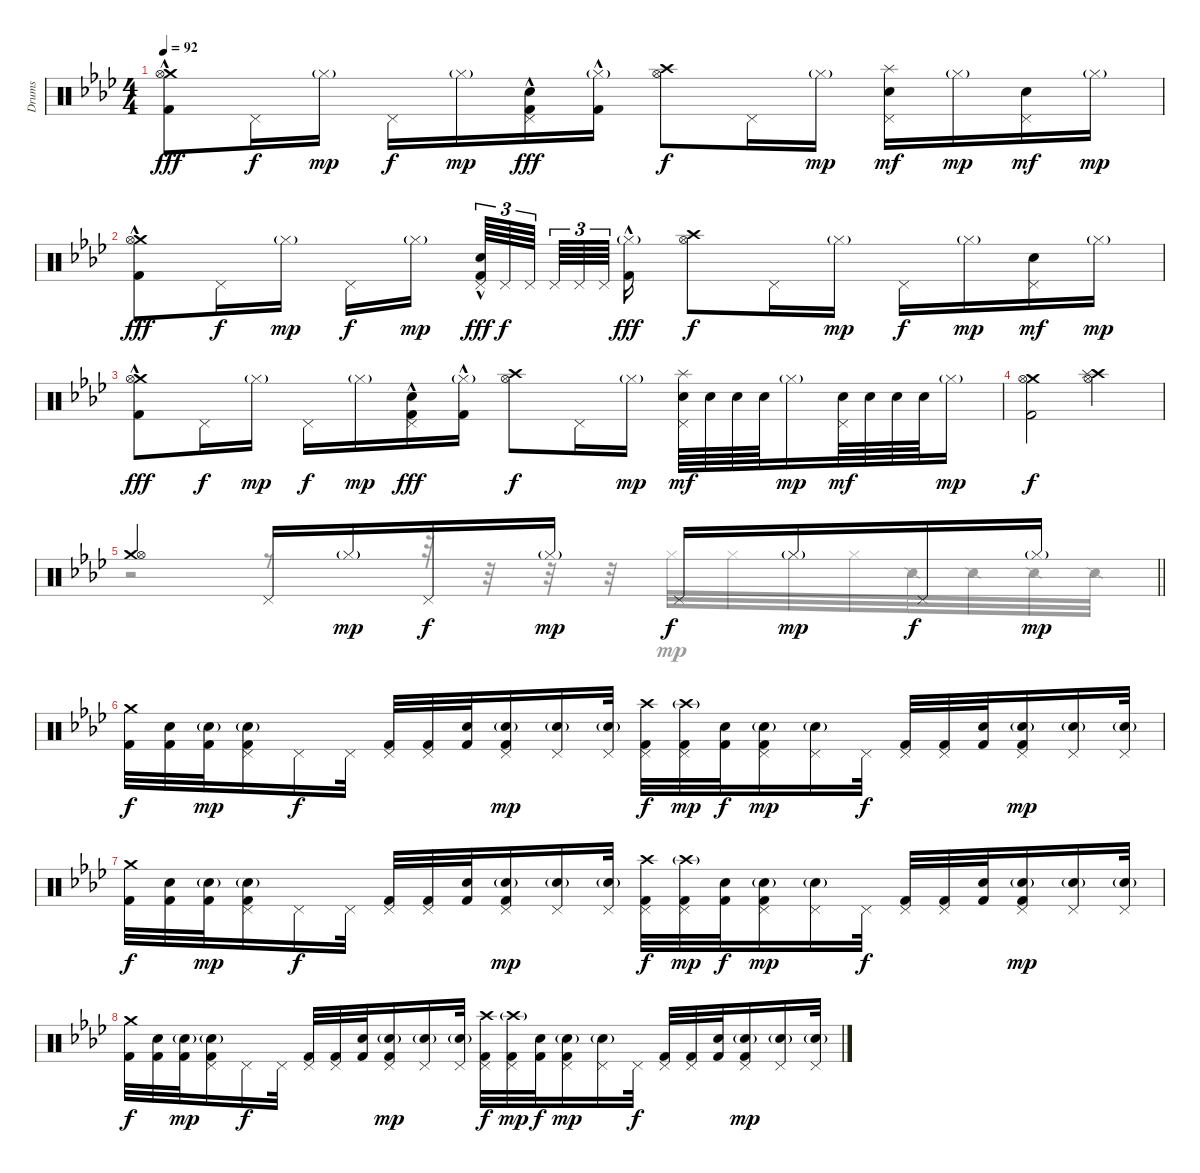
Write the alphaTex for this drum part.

\track ("Drums" "Drums") {instrument percussion}
\staff {score}
\articulation defaults
\voice
\ts (4 4)
\tempo 92
\clef neutral
\ks fminor
("Crash medium (hit)" "Hi-Hat (open)" "Kick (hit) 2"{hac}).8{dy fff} "Pedal Hi-Hat (hit)".16{dy f} "Hi-Hat (closed)"{g}.16{dy mp} "Pedal Hi-Hat (hit)".16{dy f} "Hi-Hat (closed)"{g}.16{dy mp} ("Pedal Hi-Hat (hit)" "Hand Clap (hit)" "Kick (hit) 2"{hac}).16{dy fff} ("Hi-Hat (closed)"{g} "Kick (hit) 2"{hac}).16 ("Crash high (hit)" "Hi-Hat (open)").8{dy f} "Pedal Hi-Hat (hit)".16 "Hi-Hat (closed)"{g}.16{dy mp} ("Splash (hit)" "Pedal Hi-Hat (hit)" "Hand Clap (hit)").16{dy mf} "Hi-Hat (closed)"{g}.16{dy mp} ("Pedal Hi-Hat (hit)" "Hand Clap (hit)").16{dy mf} "Hi-Hat (closed)"{g}.16{dy mp} |
("Crash medium (hit)" "Hi-Hat (open)" "Kick (hit) 2"{hac}).8{dy fff} "Pedal Hi-Hat (hit)".16{dy f} "Hi-Hat (closed)"{g}.16{dy mp} "Pedal Hi-Hat (hit)".16{dy f} "Hi-Hat (closed)"{g}.16{dy mp beam splitsecondary} ("Pedal Hi-Hat (hit)" "Hand Clap (hit)" "Kick (hit) 2"{hac}).64{tu (3 2) dy fff} "Pedal Hi-Hat (hit)".64{tu (3 2) dy f} "Pedal Hi-Hat (hit)".64{tu (3 2) beam splitsecondary} "Pedal Hi-Hat (hit)".64{tu (3 2)} "Pedal Hi-Hat (hit)".64{tu (3 2)} "Pedal Hi-Hat (hit)".64{tu (3 2) beam splitsecondary} ("Hi-Hat (closed)"{g} "Kick (hit) 2"{hac}).16{dy fff} ("Crash high (hit)" "Hi-Hat (open)").8{dy f} "Pedal Hi-Hat (hit)".16 "Hi-Hat (closed)"{g}.16{dy mp} "Pedal Hi-Hat (hit)".16{dy f} "Hi-Hat (closed)"{g}.16{dy mp} ("Pedal Hi-Hat (hit)" "Hand Clap (hit)").16{dy mf} "Hi-Hat (closed)"{g}.16{dy mp} |
("Crash medium (hit)" "Hi-Hat (open)" "Kick (hit) 2"{hac}).8{dy fff} "Pedal Hi-Hat (hit)".16{dy f} "Hi-Hat (closed)"{g}.16{dy mp} "Pedal Hi-Hat (hit)".16{dy f} "Hi-Hat (closed)"{g}.16{dy mp} ("Pedal Hi-Hat (hit)" "Hand Clap (hit)" "Kick (hit) 2"{hac}).16{dy fff} ("Hi-Hat (closed)"{g} "Kick (hit) 2"{hac}).16 ("Crash high (hit)" "Hi-Hat (open)").8{dy f} "Pedal Hi-Hat (hit)".16 "Hi-Hat (closed)"{g}.16{dy mp} ("Splash (hit)" "Pedal Hi-Hat (hit)" "Hand Clap (hit)").64{dy mf} "Hand Clap (hit)".64 "Hand Clap (hit)".64 "Hand Clap (hit)".64 "Hi-Hat (closed)"{g}.16{dy mp} ("Pedal Hi-Hat (hit)" "Hand Clap (hit)").64{dy mf} "Hand Clap (hit)".64 "Hand Clap (hit)".64 "Hand Clap (hit)".64 "Hi-Hat (closed)"{g}.16{dy mp} |
("Crash medium (hit)" "Hi-Hat (open)" "Kick (hit) 2").2{dy f} ("Crash high (hit)" "Hi-Hat (open)" "Splash (hit)").2 |
\barLineRight lightlight
("Crash medium (hit)" "Hi-Hat (open)").2 "Pedal Hi-Hat (hit)".16 "Hi-Hat (closed)"{g}.16{dy mp} "Pedal Hi-Hat (hit)".16{dy f} "Hi-Hat (closed)"{g}.16{dy mp} "Pedal Hi-Hat (hit)".16{dy f} "Hi-Hat (closed)"{g}.16{dy mp} "Pedal Hi-Hat (hit)".16{dy f} "Hi-Hat (closed)"{g}.16{dy mp} |
("Crash medium (hit)" "Kick (hit) 2").32{dy f} ("Snare (hit) 2" "Kick (hit) 2").32 ("Snare (hit) 2"{g} "Kick (hit) 2").32{dy mp} ("Pedal Hi-Hat (hit)" "Snare (hit) 2"{g} "Kick (hit) 2").16 "Pedal Hi-Hat (hit)".16{dy f} "Pedal Hi-Hat (hit)".32 ("Pedal Hi-Hat (hit)" "Kick (hit) 2").32 ("Pedal Hi-Hat (hit)" "Kick (hit) 2").32 ("Snare (hit) 2" "Kick (hit) 2").32 ("Pedal Hi-Hat (hit)" "Snare (hit) 2"{g} "Kick (hit) 2").16{dy mp} ("Pedal Hi-Hat (hit)" "Snare (hit) 2"{g}).16 ("Pedal Hi-Hat (hit)" "Snare (hit) 2"{g}).32 ("Crash high (hit)" "Pedal Hi-Hat (hit)" "Kick (hit) 2").32{dy f} ("Crash high (hit)"{g} "Pedal Hi-Hat (hit)" "Kick (hit) 2").32{dy mp} ("Snare (hit) 2" "Kick (hit) 2").32{dy f} ("Pedal Hi-Hat (hit)" "Snare (hit) 2"{g} "Kick (hit) 2").16{dy mp} ("Pedal Hi-Hat (hit)" "Snare (hit) 2"{g}).16 "Pedal Hi-Hat (hit)".32{dy f} ("Pedal Hi-Hat (hit)" "Kick (hit) 2").32 ("Pedal Hi-Hat (hit)" "Kick (hit) 2").32 ("Snare (hit) 2" "Kick (hit) 2").32 ("Pedal Hi-Hat (hit)" "Snare (hit) 2"{g} "Kick (hit) 2").16{dy mp} ("Pedal Hi-Hat (hit)" "Snare (hit) 2"{g}).16 ("Pedal Hi-Hat (hit)" "Snare (hit) 2"{g}).32 |
("Crash medium (hit)" "Kick (hit) 2").32{dy f} ("Snare (hit) 2" "Kick (hit) 2").32 ("Snare (hit) 2"{g} "Kick (hit) 2").32{dy mp} ("Pedal Hi-Hat (hit)" "Snare (hit) 2"{g} "Kick (hit) 2").16 "Pedal Hi-Hat (hit)".16{dy f} "Pedal Hi-Hat (hit)".32 ("Pedal Hi-Hat (hit)" "Kick (hit) 2").32 ("Pedal Hi-Hat (hit)" "Kick (hit) 2").32 ("Snare (hit) 2" "Kick (hit) 2").32 ("Pedal Hi-Hat (hit)" "Snare (hit) 2"{g} "Kick (hit) 2").16{dy mp} ("Pedal Hi-Hat (hit)" "Snare (hit) 2"{g}).16 ("Pedal Hi-Hat (hit)" "Snare (hit) 2"{g}).32 ("Crash high (hit)" "Pedal Hi-Hat (hit)" "Kick (hit) 2").32{dy f} ("Crash high (hit)"{g} "Pedal Hi-Hat (hit)" "Kick (hit) 2").32{dy mp} ("Snare (hit) 2" "Kick (hit) 2").32{dy f} ("Pedal Hi-Hat (hit)" "Snare (hit) 2"{g} "Kick (hit) 2").16{dy mp} ("Pedal Hi-Hat (hit)" "Snare (hit) 2"{g}).16 "Pedal Hi-Hat (hit)".32{dy f} ("Pedal Hi-Hat (hit)" "Kick (hit) 2").32 ("Pedal Hi-Hat (hit)" "Kick (hit) 2").32 ("Snare (hit) 2" "Kick (hit) 2").32 ("Pedal Hi-Hat (hit)" "Snare (hit) 2"{g} "Kick (hit) 2").16{dy mp} ("Pedal Hi-Hat (hit)" "Snare (hit) 2"{g}).16 ("Pedal Hi-Hat (hit)" "Snare (hit) 2"{g}).32 |
("Crash medium (hit)" "Kick (hit) 2").32{dy f} ("Snare (hit) 2" "Kick (hit) 2").32 ("Snare (hit) 2"{g} "Kick (hit) 2").32{dy mp} ("Pedal Hi-Hat (hit)" "Snare (hit) 2"{g} "Kick (hit) 2").16 "Pedal Hi-Hat (hit)".16{dy f} "Pedal Hi-Hat (hit)".32 ("Pedal Hi-Hat (hit)" "Kick (hit) 2").32 ("Pedal Hi-Hat (hit)" "Kick (hit) 2").32 ("Snare (hit) 2" "Kick (hit) 2").32 ("Pedal Hi-Hat (hit)" "Snare (hit) 2"{g} "Kick (hit) 2").16{dy mp} ("Pedal Hi-Hat (hit)" "Snare (hit) 2"{g}).16 ("Pedal Hi-Hat (hit)" "Snare (hit) 2"{g}).32 ("Crash high (hit)" "Pedal Hi-Hat (hit)" "Kick (hit) 2").32{dy f} ("Crash high (hit)"{g} "Pedal Hi-Hat (hit)" "Kick (hit) 2").32{dy mp} ("Snare (hit) 2" "Kick (hit) 2").32{dy f} ("Pedal Hi-Hat (hit)" "Snare (hit) 2"{g} "Kick (hit) 2").16{dy mp} ("Pedal Hi-Hat (hit)" "Snare (hit) 2"{g}).16 "Pedal Hi-Hat (hit)".32{dy f} ("Pedal Hi-Hat (hit)" "Kick (hit) 2").32 ("Pedal Hi-Hat (hit)" "Kick (hit) 2").32 ("Snare (hit) 2" "Kick (hit) 2").32 ("Pedal Hi-Hat (hit)" "Snare (hit) 2"{g} "Kick (hit) 2").16{dy mp} ("Pedal Hi-Hat (hit)" "Snare (hit) 2"{g}).16 ("Pedal Hi-Hat (hit)" "Snare (hit) 2"{g}).32
\voice
\clef neutral
\ottava regular
\simile none
\ks fminor
|
|
|
|
\barLineRight lightlight
r.2 r.8 r.32 r.32 r.32 r.32 "Hi-Hat (closed)".32 "Hi-Hat (closed)".32 "Hi-Hat (closed)".32 "Hi-Hat (closed)".32 "Snare (side stick) 2".32 "Snare (side stick) 2".32 "Snare (side stick) 2".32 "Snare (side stick) 2".32 |
|
|
